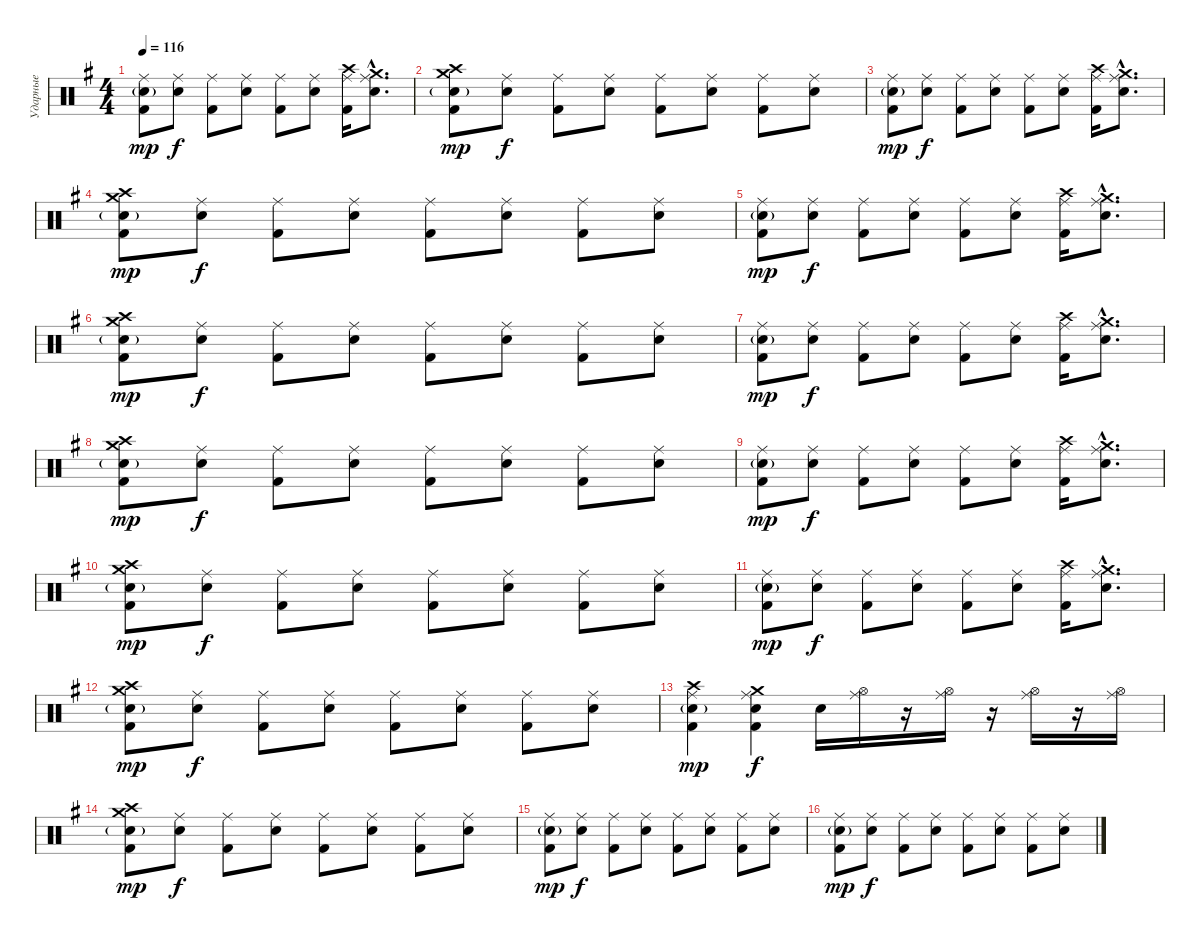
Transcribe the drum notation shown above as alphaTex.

\track ("Ударные" "Ударные") {instrument percussion}
\staff {score}
\articulation defaults
\ts (4 4)
\tempo 116
\clef neutral
\ks eminor
("Ride (middle)" "Electric Snare (hit)"{g} "Kick (hit) 2").8{dy mp} ("Ride (middle)" "Electric Snare (hit)").8{dy f} ("Ride (middle)" "Kick (hit) 2").8 ("Ride (middle)" "Electric Snare (hit)").8 ("Ride (middle)" "Kick (hit) 2").8 ("Ride (middle)" "Electric Snare (hit)").8 ("Ride (middle)" "Crash high (hit)" "Kick (hit) 2").16 ("Ride (middle)"{hac} "Crash medium (hit)"{hac} "Electric Snare (hit)"{hac}).8{d} |
("Crash high (hit)" "Crash medium (hit)" "Electric Snare (hit)"{g} "Kick (hit) 2").8{dy mp} ("Ride (middle)" "Electric Snare (hit)").8{dy f} ("Ride (middle)" "Kick (hit) 2").8 ("Ride (middle)" "Electric Snare (hit)").8 ("Ride (middle)" "Kick (hit) 2").8 ("Ride (middle)" "Electric Snare (hit)").8 ("Ride (middle)" "Kick (hit) 2").8 ("Ride (middle)" "Electric Snare (hit)").8 |
("Ride (middle)" "Electric Snare (hit)"{g} "Kick (hit) 2").8{dy mp} ("Ride (middle)" "Electric Snare (hit)").8{dy f} ("Ride (middle)" "Kick (hit) 2").8 ("Ride (middle)" "Electric Snare (hit)").8 ("Ride (middle)" "Kick (hit) 2").8 ("Ride (middle)" "Electric Snare (hit)").8 ("Ride (middle)" "Crash high (hit)" "Kick (hit) 2").16 ("Ride (middle)"{hac} "Crash medium (hit)"{hac} "Electric Snare (hit)"{hac}).8{d} |
("Crash high (hit)" "Crash medium (hit)" "Electric Snare (hit)"{g} "Kick (hit) 2").8{dy mp} ("Ride (middle)" "Electric Snare (hit)").8{dy f} ("Ride (middle)" "Kick (hit) 2").8 ("Ride (middle)" "Electric Snare (hit)").8 ("Ride (middle)" "Kick (hit) 2").8 ("Ride (middle)" "Electric Snare (hit)").8 ("Ride (middle)" "Kick (hit) 2").8 ("Ride (middle)" "Electric Snare (hit)").8 |
("Ride (middle)" "Electric Snare (hit)"{g} "Kick (hit) 2").8{dy mp} ("Ride (middle)" "Electric Snare (hit)").8{dy f} ("Ride (middle)" "Kick (hit) 2").8 ("Ride (middle)" "Electric Snare (hit)").8 ("Ride (middle)" "Kick (hit) 2").8 ("Ride (middle)" "Electric Snare (hit)").8 ("Ride (middle)" "Crash high (hit)" "Kick (hit) 2").16 ("Ride (middle)"{hac} "Crash medium (hit)"{hac} "Electric Snare (hit)"{hac}).8{d} |
("Crash high (hit)" "Crash medium (hit)" "Electric Snare (hit)"{g} "Kick (hit) 2").8{dy mp} ("Ride (middle)" "Electric Snare (hit)").8{dy f} ("Ride (middle)" "Kick (hit) 2").8 ("Ride (middle)" "Electric Snare (hit)").8 ("Ride (middle)" "Kick (hit) 2").8 ("Ride (middle)" "Electric Snare (hit)").8 ("Ride (middle)" "Kick (hit) 2").8 ("Ride (middle)" "Electric Snare (hit)").8 |
("Ride (middle)" "Electric Snare (hit)"{g} "Kick (hit) 2").8{dy mp} ("Ride (middle)" "Electric Snare (hit)").8{dy f} ("Ride (middle)" "Kick (hit) 2").8 ("Ride (middle)" "Electric Snare (hit)").8 ("Ride (middle)" "Kick (hit) 2").8 ("Ride (middle)" "Electric Snare (hit)").8 ("Ride (middle)" "Crash high (hit)" "Kick (hit) 2").16 ("Ride (middle)"{hac} "Crash medium (hit)"{hac} "Electric Snare (hit)"{hac}).8{d} |
("Crash high (hit)" "Crash medium (hit)" "Electric Snare (hit)"{g} "Kick (hit) 2").8{dy mp} ("Ride (middle)" "Electric Snare (hit)").8{dy f} ("Ride (middle)" "Kick (hit) 2").8 ("Ride (middle)" "Electric Snare (hit)").8 ("Ride (middle)" "Kick (hit) 2").8 ("Ride (middle)" "Electric Snare (hit)").8 ("Ride (middle)" "Kick (hit) 2").8 ("Ride (middle)" "Electric Snare (hit)").8 |
("Ride (middle)" "Electric Snare (hit)"{g} "Kick (hit) 2").8{dy mp} ("Ride (middle)" "Electric Snare (hit)").8{dy f} ("Ride (middle)" "Kick (hit) 2").8 ("Ride (middle)" "Electric Snare (hit)").8 ("Ride (middle)" "Kick (hit) 2").8 ("Ride (middle)" "Electric Snare (hit)").8 ("Ride (middle)" "Crash high (hit)" "Kick (hit) 2").16 ("Ride (middle)"{hac} "Crash medium (hit)"{hac} "Electric Snare (hit)"{hac}).8{d} |
("Crash high (hit)" "Crash medium (hit)" "Electric Snare (hit)"{g} "Kick (hit) 2").8{dy mp} ("Ride (middle)" "Electric Snare (hit)").8{dy f} ("Ride (middle)" "Kick (hit) 2").8 ("Ride (middle)" "Electric Snare (hit)").8 ("Ride (middle)" "Kick (hit) 2").8 ("Ride (middle)" "Electric Snare (hit)").8 ("Ride (middle)" "Kick (hit) 2").8 ("Ride (middle)" "Electric Snare (hit)").8 |
("Ride (middle)" "Electric Snare (hit)"{g} "Kick (hit) 2").8{dy mp} ("Ride (middle)" "Electric Snare (hit)").8{dy f} ("Ride (middle)" "Kick (hit) 2").8 ("Ride (middle)" "Electric Snare (hit)").8 ("Ride (middle)" "Kick (hit) 2").8 ("Ride (middle)" "Electric Snare (hit)").8 ("Ride (middle)" "Crash high (hit)" "Kick (hit) 2").16 ("Ride (middle)"{hac} "Crash medium (hit)"{hac} "Electric Snare (hit)"{hac}).8{d} |
("Crash high (hit)" "Crash medium (hit)" "Electric Snare (hit)"{g} "Kick (hit) 2").8{dy mp} ("Ride (middle)" "Electric Snare (hit)").8{dy f} ("Ride (middle)" "Kick (hit) 2").8 ("Ride (middle)" "Electric Snare (hit)").8 ("Ride (middle)" "Kick (hit) 2").8 ("Ride (middle)" "Electric Snare (hit)").8 ("Ride (middle)" "Kick (hit) 2").8 ("Ride (middle)" "Electric Snare (hit)").8 |
("Ride (middle)" "Crash high (hit)" "Electric Snare (hit)"{g} "Kick (hit) 2").4{dy mp} ("Ride (middle)" "Crash medium (hit)" "Electric Snare (hit)" "Kick (hit) 2").4{dy f} "Electric Snare (hit)".16 ("Ride (middle)" "Hi-Hat (open)").16 r.16 ("Ride (middle)" "Hi-Hat (open)").16 r.16 ("Ride (middle)" "Hi-Hat (open)").16 r.16 ("Ride (middle)" "Hi-Hat (open)").16 |
("Crash high (hit)" "Crash medium (hit)" "Electric Snare (hit)"{g} "Kick (hit) 2").8{dy mp} ("Ride (middle)" "Electric Snare (hit)").8{dy f} ("Ride (middle)" "Kick (hit) 2").8 ("Ride (middle)" "Electric Snare (hit)").8 ("Ride (middle)" "Kick (hit) 2").8 ("Ride (middle)" "Electric Snare (hit)").8 ("Ride (middle)" "Kick (hit) 2").8 ("Ride (middle)" "Electric Snare (hit)").8 |
("Ride (middle)" "Electric Snare (hit)"{g} "Kick (hit) 2").8{dy mp} ("Ride (middle)" "Electric Snare (hit)").8{dy f} ("Ride (middle)" "Kick (hit) 2").8 ("Ride (middle)" "Electric Snare (hit)").8 ("Ride (middle)" "Kick (hit) 2").8 ("Ride (middle)" "Electric Snare (hit)").8 ("Ride (middle)" "Kick (hit) 2").8 ("Ride (middle)" "Electric Snare (hit)").8 |
("Ride (middle)" "Electric Snare (hit)"{g} "Kick (hit) 2").8{dy mp} ("Ride (middle)" "Electric Snare (hit)").8{dy f} ("Ride (middle)" "Kick (hit) 2").8 ("Ride (middle)" "Electric Snare (hit)").8 ("Ride (middle)" "Kick (hit) 2").8 ("Ride (middle)" "Electric Snare (hit)").8 ("Ride (middle)" "Kick (hit) 2").8 ("Ride (middle)" "Electric Snare (hit)").8
